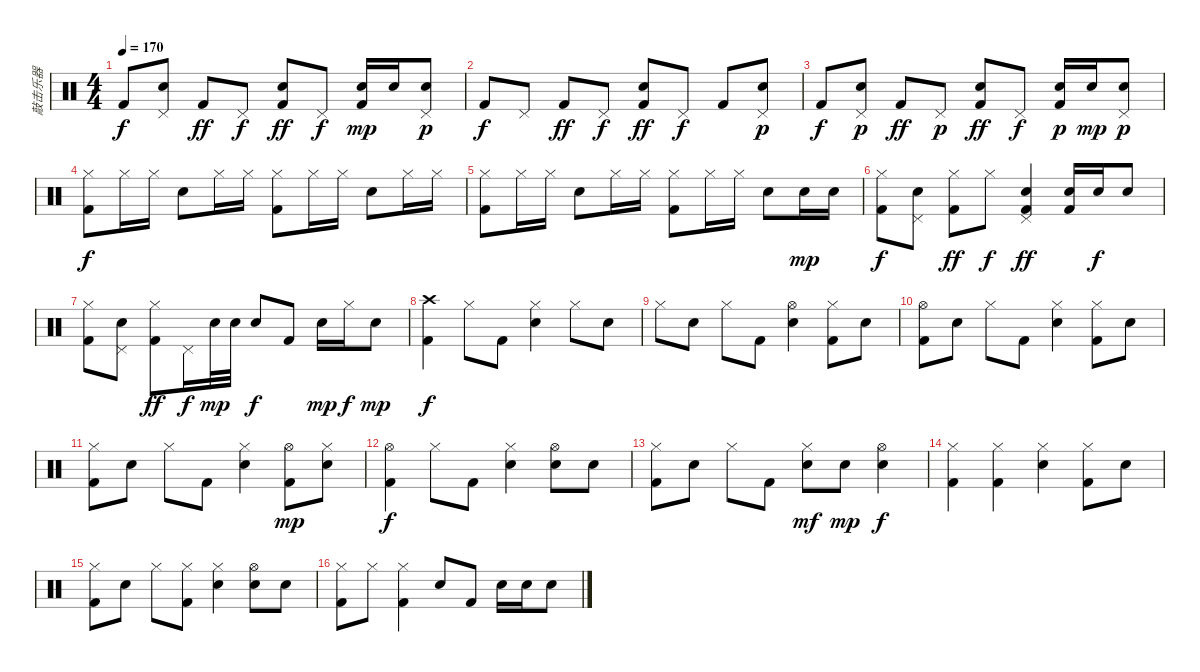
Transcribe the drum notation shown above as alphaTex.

\track ("敲击乐器" "敲击乐器") {instrument percussion}
\staff {score}
\articulation defaults
\ts (4 4)
\tempo 170
\clef neutral
\ks c "Kick (hit) 2".8{dy f}
("Pedal Hi-Hat (hit)" "Snare (hit) 2").8 "Kick (hit) 2".8{dy ff} "Pedal Hi-Hat (hit)".8{dy f} ("Snare (hit) 2" "Kick (hit) 2").8{dy ff} "Pedal Hi-Hat (hit)".8{dy f} ("Snare (hit) 2" "Kick (hit) 2").16{dy mp} "Snare (hit) 2".16 ("Pedal Hi-Hat (hit)" "Snare (hit) 2").8{dy p} |
"Kick (hit) 2".8{dy f} "Pedal Hi-Hat (hit)".8 "Kick (hit) 2".8{dy ff} "Pedal Hi-Hat (hit)".8{dy f} ("Snare (hit) 2" "Kick (hit) 2").8{dy ff} "Pedal Hi-Hat (hit)".8{dy f} "Kick (hit) 2".8 ("Pedal Hi-Hat (hit)" "Snare (hit) 2").8{dy p} |
"Kick (hit) 2".8{dy f} ("Pedal Hi-Hat (hit)" "Snare (hit) 2").8{dy p} "Kick (hit) 2".8{dy ff} "Pedal Hi-Hat (hit)".8{dy p} ("Snare (hit) 2" "Kick (hit) 2").8{dy ff} "Pedal Hi-Hat (hit)".8{dy f} ("Snare (hit) 2" "Kick (hit) 2").16{dy p} "Snare (hit) 2".16{dy mp} ("Pedal Hi-Hat (hit)" "Snare (hit) 2").8{dy p} |
("Hi-Hat (closed)" "Kick (hit) 2").8{dy f} "Hi-Hat (closed)".16 "Hi-Hat (closed)".16 "Snare (hit) 2".8 "Hi-Hat (closed)".16 "Hi-Hat (closed)".16 ("Hi-Hat (closed)" "Kick (hit) 2").8 "Hi-Hat (closed)".16 "Hi-Hat (closed)".16 "Snare (hit) 2".8 "Hi-Hat (closed)".16 "Hi-Hat (closed)".16 |
("Hi-Hat (closed)" "Kick (hit) 2").8 "Hi-Hat (closed)".16 "Hi-Hat (closed)".16 "Snare (hit) 2".8 "Hi-Hat (closed)".16 "Hi-Hat (closed)".16 ("Hi-Hat (closed)" "Kick (hit) 2").8 "Hi-Hat (closed)".16 "Hi-Hat (closed)".16 "Snare (hit) 2".8 "Snare (hit) 2".16{dy mp} "Snare (hit) 2".16 |
("Hi-Hat (closed)" "Kick (hit) 2").8{dy f} ("Pedal Hi-Hat (hit)" "Snare (hit) 2").8 ("Hi-Hat (closed)" "Kick (hit) 2").8{dy ff} "Hi-Hat (closed)".8{dy f} ("Pedal Hi-Hat (hit)" "Snare (hit) 2" "Kick (hit) 2").4{dy ff} ("Snare (hit) 2" "Kick (hit) 2").16 "Snare (hit) 2".16{dy f} "Snare (hit) 2".8 |
("Hi-Hat (closed)" "Kick (hit) 2").8 ("Pedal Hi-Hat (hit)" "Snare (hit) 2").8 ("Hi-Hat (closed)" "Kick (hit) 2").8{dy ff} "Pedal Hi-Hat (hit)".16{dy f} "Snare (hit) 2".32{dy mp} "Snare (hit) 2".32 "Snare (hit) 2".8{dy f} "Kick (hit) 2".8 "Snare (hit) 2".16{dy mp} "Hi-Hat (closed)".16{dy f} "Snare (hit) 2".8{dy mp} |
("Crash high (hit)" "Kick (hit) 2").4{dy f} "Hi-Hat (closed)".8 "Kick (hit) 2".8 ("Hi-Hat (closed)" "Snare (hit) 2").4 "Hi-Hat (closed)".8 "Snare (hit) 2".8 |
"Hi-Hat (closed)".8 "Snare (hit) 2".8 "Hi-Hat (closed)".8 "Kick (hit) 2".8 ("Hi-Hat (open)" "Snare (hit) 2").4 ("Hi-Hat (closed)" "Kick (hit) 2").8 "Snare (hit) 2".8 |
("Hi-Hat (open)" "Kick (hit) 2").8 "Snare (hit) 2".8 "Hi-Hat (closed)".8 "Kick (hit) 2".8 ("Hi-Hat (closed)" "Snare (hit) 2").4 ("Hi-Hat (closed)" "Kick (hit) 2").8 "Snare (hit) 2".8 |
("Hi-Hat (closed)" "Kick (hit) 2").8 "Snare (hit) 2".8 "Hi-Hat (closed)".8 "Kick (hit) 2".8 ("Hi-Hat (closed)" "Snare (hit) 2").4 ("Hi-Hat (open)" "Kick (hit) 2").8{dy mp} ("Hi-Hat (closed)" "Snare (hit) 2").8 |
("Hi-Hat (open)" "Kick (hit) 2").4{dy f} "Hi-Hat (closed)".8 "Kick (hit) 2".8 ("Hi-Hat (closed)" "Snare (hit) 2").4 ("Hi-Hat (open)" "Snare (hit) 2").8 "Snare (hit) 2".8 |
("Hi-Hat (closed)" "Kick (hit) 2").8 "Snare (hit) 2".8 "Hi-Hat (closed)".8 "Kick (hit) 2".8 ("Hi-Hat (closed)" "Snare (hit) 2").8{dy mf} "Snare (hit) 2".8{dy mp} ("Hi-Hat (open)" "Snare (hit) 2").4{dy f} |
("Hi-Hat (closed)" "Kick (hit) 2").4 ("Hi-Hat (closed)" "Kick (hit) 2").4 ("Hi-Hat (closed)" "Snare (hit) 2").4 ("Hi-Hat (closed)" "Kick (hit) 2").8 "Snare (hit) 2".8 |
("Hi-Hat (closed)" "Kick (hit) 2").8 "Snare (hit) 2".8 "Hi-Hat (closed)".8 ("Hi-Hat (closed)" "Kick (hit) 2").8 ("Hi-Hat (closed)" "Snare (hit) 2").4 ("Hi-Hat (open)" "Snare (hit) 2").8 "Snare (hit) 2".8 |
("Hi-Hat (closed)" "Kick (hit) 2").8 "Hi-Hat (closed)".8 ("Hi-Hat (closed)" "Kick (hit) 2").4 "Snare (hit) 2".8 "Kick (hit) 2".8 "Snare (hit) 2".16 "Snare (hit) 2".16 "Snare (hit) 2".8
